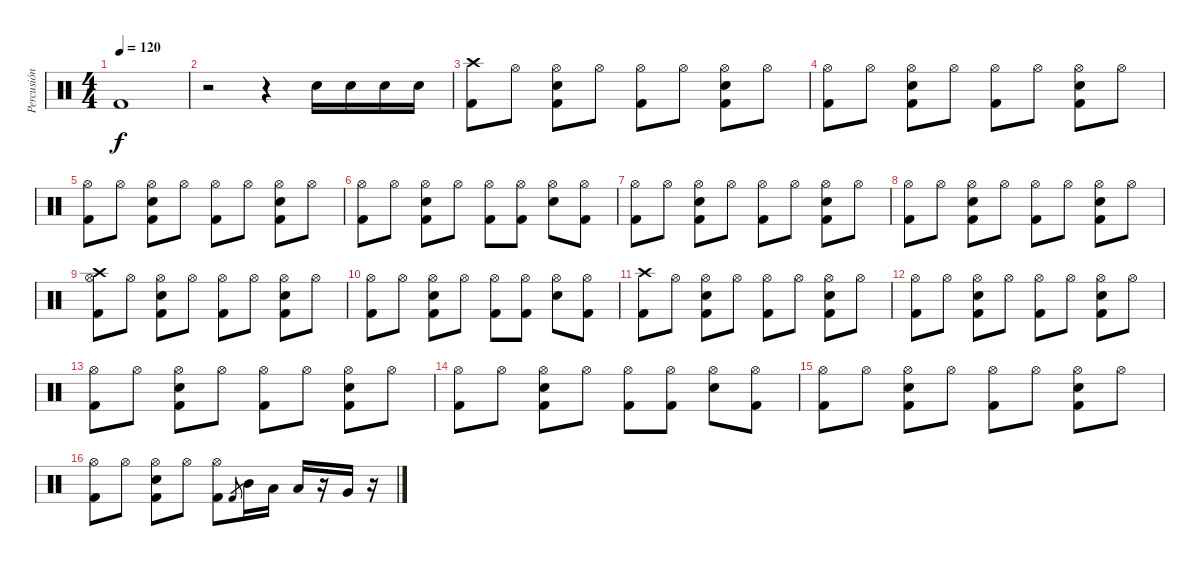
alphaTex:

\track ("Percusión" "Percusión") {instrument percussion}
\staff {score}
\articulation defaults
\ts (4 4)
\tempo 120
\clef neutral
\ks c "Kick (hit) 2".1{dy f}
|
r.2 r.4 "Electric Snare (hit)".16 "Electric Snare (hit)".16 "Electric Snare (hit)".16 "Electric Snare (hit)".16 |
("Crash high (hit)" "Kick (hit) 2").8 "Hi-Hat (open)".8 ("Kick (hit) 2" "Electric Snare (hit)" "Hi-Hat (open)").8 "Hi-Hat (open)".8 ("Kick (hit) 2" "Hi-Hat (open)").8 "Hi-Hat (open)".8 ("Kick (hit) 2" "Electric Snare (hit)" "Hi-Hat (open)").8 "Hi-Hat (open)".8 |
("Hi-Hat (open)" "Kick (hit) 2").8 "Hi-Hat (open)".8 ("Kick (hit) 2" "Electric Snare (hit)" "Hi-Hat (open)").8 "Hi-Hat (open)".8 ("Kick (hit) 2" "Hi-Hat (open)").8 "Hi-Hat (open)".8 ("Kick (hit) 2" "Electric Snare (hit)" "Hi-Hat (open)").8 "Hi-Hat (open)".8 |
("Hi-Hat (open)" "Kick (hit) 2").8 "Hi-Hat (open)".8 ("Kick (hit) 2" "Electric Snare (hit)" "Hi-Hat (open)").8 "Hi-Hat (open)".8 ("Kick (hit) 2" "Hi-Hat (open)").8 "Hi-Hat (open)".8 ("Kick (hit) 2" "Electric Snare (hit)" "Hi-Hat (open)").8 "Hi-Hat (open)".8 |
("Hi-Hat (open)" "Kick (hit) 2").8 "Hi-Hat (open)".8 ("Kick (hit) 2" "Electric Snare (hit)" "Hi-Hat (open)").8 "Hi-Hat (open)".8 ("Kick (hit) 2" "Hi-Hat (open)").8 ("Kick (hit) 2" "Hi-Hat (open)").8 ("Electric Snare (hit)" "Hi-Hat (open)").8 ("Kick (hit) 2" "Hi-Hat (open)").8 |
("Hi-Hat (open)" "Kick (hit) 2").8 "Hi-Hat (open)".8 ("Kick (hit) 2" "Electric Snare (hit)" "Hi-Hat (open)").8 "Hi-Hat (open)".8 ("Kick (hit) 2" "Hi-Hat (open)").8 "Hi-Hat (open)".8 ("Kick (hit) 2" "Electric Snare (hit)" "Hi-Hat (open)").8 "Hi-Hat (open)".8 |
("Hi-Hat (open)" "Kick (hit) 2").8 "Hi-Hat (open)".8 ("Kick (hit) 2" "Electric Snare (hit)" "Hi-Hat (open)").8 "Hi-Hat (open)".8 ("Kick (hit) 2" "Hi-Hat (open)").8 "Hi-Hat (open)".8 ("Kick (hit) 2" "Electric Snare (hit)" "Hi-Hat (open)").8 "Hi-Hat (open)".8 |
("Hi-Hat (open)" "Crash high (hit)" "Kick (hit) 2").8 "Hi-Hat (open)".8 ("Kick (hit) 2" "Electric Snare (hit)" "Hi-Hat (open)").8 "Hi-Hat (open)".8 ("Kick (hit) 2" "Hi-Hat (open)").8 "Hi-Hat (open)".8 ("Kick (hit) 2" "Electric Snare (hit)" "Hi-Hat (open)").8 "Hi-Hat (open)".8 |
("Hi-Hat (open)" "Kick (hit) 2").8 "Hi-Hat (open)".8 ("Kick (hit) 2" "Electric Snare (hit)" "Hi-Hat (open)").8 "Hi-Hat (open)".8 ("Kick (hit) 2" "Hi-Hat (open)").8 ("Kick (hit) 2" "Hi-Hat (open)").8 ("Electric Snare (hit)" "Hi-Hat (open)").8 ("Kick (hit) 2" "Hi-Hat (open)").8 |
("Crash high (hit)" "Kick (hit) 2").8 "Hi-Hat (open)".8 ("Kick (hit) 2" "Electric Snare (hit)" "Hi-Hat (open)").8 "Hi-Hat (open)".8 ("Kick (hit) 2" "Hi-Hat (open)").8 "Hi-Hat (open)".8 ("Kick (hit) 2" "Electric Snare (hit)" "Hi-Hat (open)").8 "Hi-Hat (open)".8 |
("Hi-Hat (open)" "Kick (hit) 2").8 "Hi-Hat (open)".8 ("Kick (hit) 2" "Electric Snare (hit)" "Hi-Hat (open)").8 "Hi-Hat (open)".8 ("Kick (hit) 2" "Hi-Hat (open)").8 "Hi-Hat (open)".8 ("Kick (hit) 2" "Electric Snare (hit)" "Hi-Hat (open)").8 "Hi-Hat (open)".8 |
("Hi-Hat (open)" "Kick (hit) 2").8 "Hi-Hat (open)".8 ("Kick (hit) 2" "Electric Snare (hit)" "Hi-Hat (open)").8 "Hi-Hat (open)".8 ("Kick (hit) 2" "Hi-Hat (open)").8 "Hi-Hat (open)".8 ("Kick (hit) 2" "Electric Snare (hit)" "Hi-Hat (open)").8 "Hi-Hat (open)".8 |
("Hi-Hat (open)" "Kick (hit) 2").8 "Hi-Hat (open)".8 ("Kick (hit) 2" "Electric Snare (hit)" "Hi-Hat (open)").8 "Hi-Hat (open)".8 ("Kick (hit) 2" "Hi-Hat (open)").8 ("Kick (hit) 2" "Hi-Hat (open)").8 ("Electric Snare (hit)" "Hi-Hat (open)").8 ("Kick (hit) 2" "Hi-Hat (open)").8 |
("Hi-Hat (open)" "Kick (hit) 2").8 "Hi-Hat (open)".8 ("Kick (hit) 2" "Electric Snare (hit)" "Hi-Hat (open)").8 "Hi-Hat (open)".8 ("Kick (hit) 2" "Hi-Hat (open)").8 "Hi-Hat (open)".8 ("Kick (hit) 2" "Electric Snare (hit)" "Hi-Hat (open)").8 "Hi-Hat (open)".8 |
("Hi-Hat (open)" "Kick (hit) 2").8 "Hi-Hat (open)".8 ("Kick (hit) 2" "Electric Snare (hit)" "Hi-Hat (open)").8 "Hi-Hat (open)".8 ("Kick (hit) 2" "Hi-Hat (open)").8 "Kick (hit) 2".8{gr} "Mid Tom (hit)".16 "Low Tom (hit)".16 "Low Tom (hit)".16 r.16 "Very Low Tom (hit)".16 r.16
